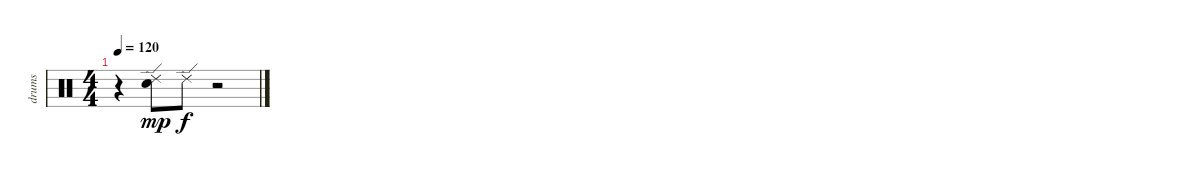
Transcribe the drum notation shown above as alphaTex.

\track ("drums" "drums") {instrument percussion}
\staff {score}
\articulation defaults
\ts (4 4)
\tempo 120
\clef neutral
\ks c
r.4{dy f} ("Ride (edge) 2" "Snare (hit) 2").8{dy mp} "Ride (edge) 2".8{dy f} r.2
